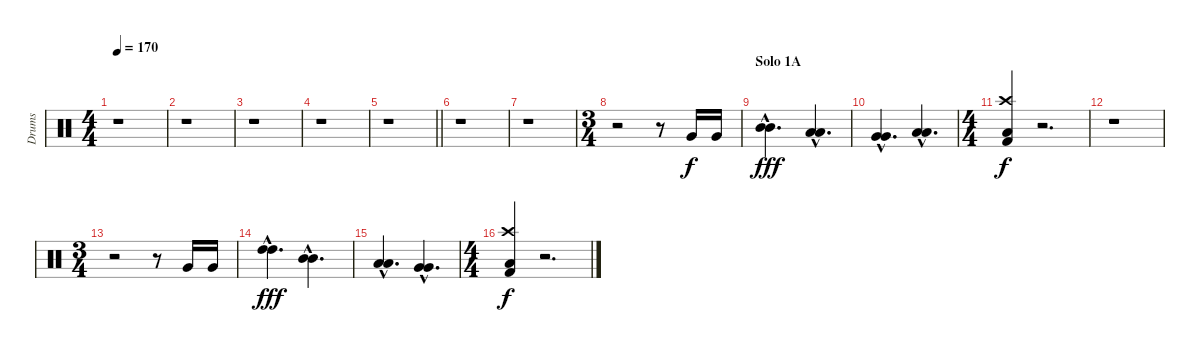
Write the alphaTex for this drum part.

\track ("Drums" "Drums") {instrument percussion}
\staff {score}
\articulation defaults
\ts (4 4)
\tempo 170
\tempo 115
\tempo 170
\clef neutral
\ks c
r.1{dy f} |
r.1 |
r.1 |
r.1 |
\barLineRight lightlight
r.1 |
r.1 |
r.1 |
\ts (3 4)
r.2 r.8 "Very Low Tom (hit)".16 "Very Low Tom (hit)".16 |
\section ("" "Solo 1A")
("Mid Tom (hit)"{hac} "Mid Tom (hit)"{hac}).4{d dy fff} ("Low Tom (hit)"{hac} "Low Tom (hit)"{hac}).4{d} |
("Very Low Tom (hit)"{hac} "Very Low Tom (hit)"{hac}).4{d} ("Low Floor Tom (hit)"{hac} "Low Floor Tom (hit)"{hac}).4{d} |
\ts (4 4)
("Crash high (hit)" "Low Floor Tom (hit)" "Kick (hit) 2").4{dy f} r.2{d} |
r.1 |
\ts (3 4)
r.2 r.8 "Very Low Tom (hit)".16 "Very Low Tom (hit)".16 |
("High Tom (hit)"{hac} "High Tom (hit)"{hac}).4{d dy fff} ("Mid Tom (hit)"{hac} "Mid Tom (hit)"{hac}).4{d} |
("Low Tom (hit)"{hac} "Low Tom (hit)"{hac}).4{d} ("Very Low Tom (hit)"{hac} "Very Low Tom (hit)"{hac}).4{d} |
\ts (4 4)
("Crash high (hit)" "Low Floor Tom (hit)" "Kick (hit) 2").4{dy f} r.2{d}
